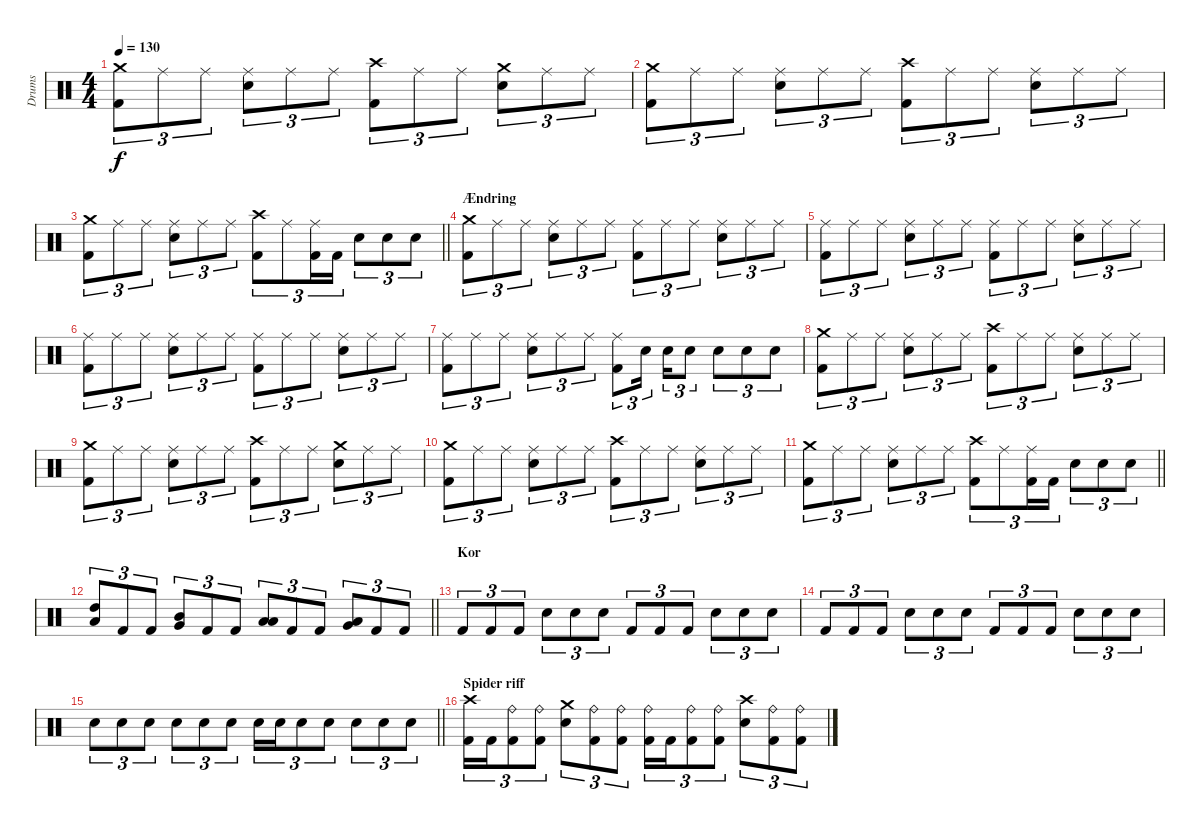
\track ("Drums" "Drums") {instrument percussion}
\staff {score}
\articulation defaults
\ts (4 4)
\tempo 130
\clef neutral
\ks c
("Crash medium (hit)" "Kick (hit) 2").8{tu (3 2) dy f} "Ride (middle)".8{tu (3 2)} "Ride (middle)".8{tu (3 2)} ("Ride (middle)" "Snare (hit) 2").8{tu (3 2)} "Ride (middle)".8{tu (3 2)} "Ride (middle)".8{tu (3 2)} ("Crash high (hit)" "Kick (hit) 2").8{tu (3 2)} "Ride (middle)".8{tu (3 2)} "Ride (middle)".8{tu (3 2)} ("Crash medium (hit)" "Snare (hit) 2").8{tu (3 2)} "Ride (middle)".8{tu (3 2)} "Ride (middle)".8{tu (3 2)} |
("Crash medium (hit)" "Kick (hit) 2").8{tu (3 2)} "Ride (middle)".8{tu (3 2)} "Ride (middle)".8{tu (3 2)} ("Ride (middle)" "Snare (hit) 2").8{tu (3 2)} "Ride (middle)".8{tu (3 2)} "Ride (middle)".8{tu (3 2)} ("Crash high (hit)" "Kick (hit) 2").8{tu (3 2)} "Ride (middle)".8{tu (3 2)} "Ride (middle)".8{tu (3 2)} ("Ride (middle)" "Snare (hit) 2").8{tu (3 2)} "Ride (middle)".8{tu (3 2)} "Ride (middle)".8{tu (3 2)} |
\barLineRight lightlight
("Crash medium (hit)" "Kick (hit) 2").8{tu (3 2)} "Ride (middle)".8{tu (3 2)} "Ride (middle)".8{tu (3 2)} ("Ride (middle)" "Snare (hit) 2").8{tu (3 2)} "Ride (middle)".8{tu (3 2)} "Ride (middle)".8{tu (3 2)} ("Crash high (hit)" "Kick (hit) 2").8{tu (3 2)} "Ride (middle)".8{tu (3 2)} ("Ride (middle)" "Kick (hit) 2").16{tu (3 2)} "Kick (hit) 2".16{tu (3 2)} "Snare (hit) 2".8{tu (3 2)} "Snare (hit) 2".8{tu (3 2)} "Snare (hit) 2".8{tu (3 2)} |
\section ("" "Ændring ")
("Crash medium (hit)" "Kick (hit) 2").8{tu (3 2)} "Ride (middle)".8{tu (3 2)} "Ride (middle)".8{tu (3 2)} ("Ride (middle)" "Snare (hit) 2").8{tu (3 2)} "Ride (middle)".8{tu (3 2)} "Ride (middle)".8{tu (3 2)} ("Ride (middle)" "Kick (hit) 2").8{tu (3 2)} "Ride (middle)".8{tu (3 2)} "Ride (middle)".8{tu (3 2)} ("Ride (middle)" "Snare (hit) 2").8{tu (3 2)} "Ride (middle)".8{tu (3 2)} "Ride (middle)".8{tu (3 2)} |
("Ride (middle)" "Kick (hit) 2").8{tu (3 2)} "Ride (middle)".8{tu (3 2)} "Ride (middle)".8{tu (3 2)} ("Ride (middle)" "Snare (hit) 2").8{tu (3 2)} "Ride (middle)".8{tu (3 2)} "Ride (middle)".8{tu (3 2)} ("Ride (middle)" "Kick (hit) 2").8{tu (3 2)} "Ride (middle)".8{tu (3 2)} "Ride (middle)".8{tu (3 2)} ("Ride (middle)" "Snare (hit) 2").8{tu (3 2)} "Ride (middle)".8{tu (3 2)} "Ride (middle)".8{tu (3 2)} |
("Ride (middle)" "Kick (hit) 2").8{tu (3 2)} "Ride (middle)".8{tu (3 2)} "Ride (middle)".8{tu (3 2)} ("Ride (middle)" "Snare (hit) 2").8{tu (3 2)} "Ride (middle)".8{tu (3 2)} "Ride (middle)".8{tu (3 2)} ("Ride (middle)" "Kick (hit) 2").8{tu (3 2)} "Ride (middle)".8{tu (3 2)} "Ride (middle)".8{tu (3 2)} ("Ride (middle)" "Snare (hit) 2").8{tu (3 2)} "Ride (middle)".8{tu (3 2)} "Ride (middle)".8{tu (3 2)} |
("Ride (middle)" "Kick (hit) 2").8{tu (3 2)} "Ride (middle)".8{tu (3 2)} "Ride (middle)".8{tu (3 2)} ("Ride (middle)" "Snare (hit) 2").8{tu (3 2)} "Ride (middle)".8{tu (3 2)} "Ride (middle)".8{tu (3 2)} ("Ride (middle)" "Kick (hit) 2").8{tu (3 2)} "Snare (hit) 2".16{tu (3 2) beam splitsecondary} "Snare (hit) 2".16{tu (3 2)} "Snare (hit) 2".8{tu (3 2)} "Snare (hit) 2".8{tu (3 2)} "Snare (hit) 2".8{tu (3 2)} "Snare (hit) 2".8{tu (3 2)} |
("Crash medium (hit)" "Kick (hit) 2").8{tu (3 2)} "Ride (middle)".8{tu (3 2)} "Ride (middle)".8{tu (3 2)} ("Ride (middle)" "Snare (hit) 2").8{tu (3 2)} "Ride (middle)".8{tu (3 2)} "Ride (middle)".8{tu (3 2)} ("Crash high (hit)" "Kick (hit) 2").8{tu (3 2)} "Ride (middle)".8{tu (3 2)} "Ride (middle)".8{tu (3 2)} ("Ride (middle)" "Snare (hit) 2").8{tu (3 2)} "Ride (middle)".8{tu (3 2)} "Ride (middle)".8{tu (3 2)} |
("Crash medium (hit)" "Kick (hit) 2").8{tu (3 2)} "Ride (middle)".8{tu (3 2)} "Ride (middle)".8{tu (3 2)} ("Ride (middle)" "Snare (hit) 2").8{tu (3 2)} "Ride (middle)".8{tu (3 2)} "Ride (middle)".8{tu (3 2)} ("Crash high (hit)" "Kick (hit) 2").8{tu (3 2)} "Ride (middle)".8{tu (3 2)} "Ride (middle)".8{tu (3 2)} ("Crash medium (hit)" "Snare (hit) 2").8{tu (3 2)} "Ride (middle)".8{tu (3 2)} "Ride (middle)".8{tu (3 2)} |
("Crash medium (hit)" "Kick (hit) 2").8{tu (3 2)} "Ride (middle)".8{tu (3 2)} "Ride (middle)".8{tu (3 2)} ("Ride (middle)" "Snare (hit) 2").8{tu (3 2)} "Ride (middle)".8{tu (3 2)} "Ride (middle)".8{tu (3 2)} ("Crash high (hit)" "Kick (hit) 2").8{tu (3 2)} "Ride (middle)".8{tu (3 2)} "Ride (middle)".8{tu (3 2)} ("Ride (middle)" "Snare (hit) 2").8{tu (3 2)} "Ride (middle)".8{tu (3 2)} "Ride (middle)".8{tu (3 2)} |
\barLineRight lightlight
("Crash medium (hit)" "Kick (hit) 2").8{tu (3 2)} "Ride (middle)".8{tu (3 2)} "Ride (middle)".8{tu (3 2)} ("Ride (middle)" "Snare (hit) 2").8{tu (3 2)} "Ride (middle)".8{tu (3 2)} "Ride (middle)".8{tu (3 2)} ("Crash high (hit)" "Kick (hit) 2").8{tu (3 2)} "Ride (middle)".8{tu (3 2)} ("Ride (middle)" "Kick (hit) 2").16{tu (3 2)} "Kick (hit) 2".16{tu (3 2)} "Snare (hit) 2".8{tu (3 2)} "Snare (hit) 2".8{tu (3 2)} "Snare (hit) 2".8{tu (3 2)} |
\barLineRight lightlight
("High Tom (hit)" "Low Tom (hit)").8{tu (3 2)} "Kick (hit) 2".8{tu (3 2)} "Kick (hit) 2".8{tu (3 2)} ("Mid Tom (hit)" "Very Low Tom (hit)").8{tu (3 2)} "Kick (hit) 2".8{tu (3 2)} "Kick (hit) 2".8{tu (3 2)} ("Low Tom (hit)" "Low Floor Tom (hit)").8{tu (3 2)} "Kick (hit) 2".8{tu (3 2)} "Kick (hit) 2".8{tu (3 2)} ("Low Tom (hit)" "Very Low Tom (hit)").8{tu (3 2)} "Kick (hit) 2".8{tu (3 2)} "Kick (hit) 2".8{tu (3 2)} |
\section ("" "Kor")
"Kick (hit) 2".8{tu (3 2)} "Kick (hit) 2".8{tu (3 2)} "Kick (hit) 2".8{tu (3 2)} "Snare (hit) 2".8{tu (3 2)} "Snare (hit) 2".8{tu (3 2)} "Snare (hit) 2".8{tu (3 2)} "Kick (hit) 2".8{tu (3 2)} "Kick (hit) 2".8{tu (3 2)} "Kick (hit) 2".8{tu (3 2)} "Snare (hit) 2".8{tu (3 2)} "Snare (hit) 2".8{tu (3 2)} "Snare (hit) 2".8{tu (3 2)} |
"Kick (hit) 2".8{tu (3 2)} "Kick (hit) 2".8{tu (3 2)} "Kick (hit) 2".8{tu (3 2)} "Snare (hit) 2".8{tu (3 2)} "Snare (hit) 2".8{tu (3 2)} "Snare (hit) 2".8{tu (3 2)} "Kick (hit) 2".8{tu (3 2)} "Kick (hit) 2".8{tu (3 2)} "Kick (hit) 2".8{tu (3 2)} "Snare (hit) 2".8{tu (3 2)} "Snare (hit) 2".8{tu (3 2)} "Snare (hit) 2".8{tu (3 2)} |
\barLineRight lightlight "Snare (hit) 2".8{tu (3 2)} "Snare (hit) 2".8{tu (3 2)} "Snare (hit) 2".8{tu (3 2)} "Snare (hit) 2".8{tu (3 2)} "Snare (hit) 2".8{tu (3 2)} "Snare (hit) 2".8{tu (3 2)} "Snare (hit) 2".16{tu (3 2)} "Snare (hit) 2".16{tu (3 2)} "Snare (hit) 2".8{tu (3 2)} "Snare (hit) 2".8{tu (3 2)} "Snare (hit) 2".8{tu (3 2)} "Snare (hit) 2".8{tu (3 2)} "Snare (hit) 2".8{tu (3 2)}
|
\section ("" "Spider riff")
("Crash high (hit)" "Kick (hit) 2").16{tu (3 2)} "Kick (hit) 2".16{tu (3 2)} ("Ride (bell)" "Kick (hit) 2").8{tu (3 2)} ("Ride (bell)" "Kick (hit) 2").8{tu (3 2)} ("Crash medium (hit)" "Snare (hit) 2").8{tu (3 2)} ("Ride (bell)" "Kick (hit) 2").8{tu (3 2)} ("Ride (bell)" "Kick (hit) 2").8{tu (3 2)} ("Ride (bell)" "Kick (hit) 2").16{tu (3 2)} "Kick (hit) 2".16{tu (3 2)} ("Ride (bell)" "Kick (hit) 2").8{tu (3 2)} ("Ride (bell)" "Kick (hit) 2").8{tu (3 2)} ("Crash high (hit)" "Snare (hit) 2").8{tu (3 2)} ("Ride (bell)" "Kick (hit) 2").8{tu (3 2)} ("Ride (bell)" "Kick (hit) 2").8{tu (3 2)}
